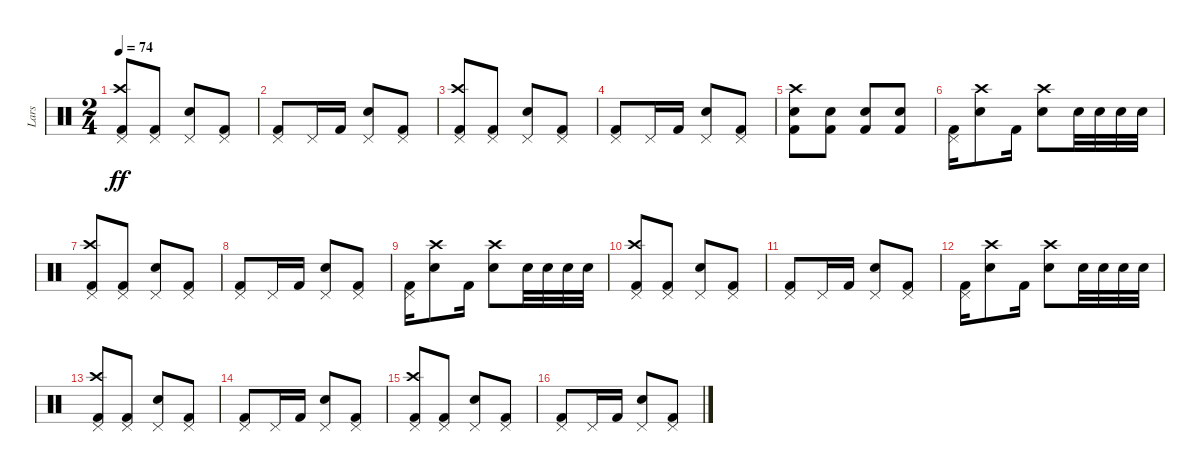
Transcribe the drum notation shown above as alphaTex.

\track ("Lars" "Lars") {instrument percussion}
\staff {score}
\articulation defaults
\ts (2 4)
\tempo 74
\clef neutral
\ks c
("Pedal Hi-Hat (hit)" "Crash high (hit)" "Kick (hit) 2").8{dy ff} ("Pedal Hi-Hat (hit)" "Kick (hit) 2").8 ("Pedal Hi-Hat (hit)" "Snare (hit) 2").8 ("Pedal Hi-Hat (hit)" "Kick (hit) 2").8 |
("Pedal Hi-Hat (hit)" "Kick (hit) 2").8 "Pedal Hi-Hat (hit)".16 "Kick (hit) 2".16 ("Pedal Hi-Hat (hit)" "Snare (hit) 2").8 ("Pedal Hi-Hat (hit)" "Kick (hit) 2").8 |
("Pedal Hi-Hat (hit)" "Crash high (hit)" "Kick (hit) 2").8 ("Pedal Hi-Hat (hit)" "Kick (hit) 2").8 ("Pedal Hi-Hat (hit)" "Snare (hit) 2").8 ("Pedal Hi-Hat (hit)" "Kick (hit) 2").8 |
("Pedal Hi-Hat (hit)" "Kick (hit) 2").8 "Pedal Hi-Hat (hit)".16 "Kick (hit) 2".16 ("Pedal Hi-Hat (hit)" "Snare (hit) 2").8 ("Pedal Hi-Hat (hit)" "Kick (hit) 2").8 |
("Crash high (hit)" "Snare (hit) 2" "Kick (hit) 2").8 ("Snare (hit) 2" "Kick (hit) 2").8 ("Snare (hit) 2" "Kick (hit) 2").8 ("Snare (hit) 2" "Kick (hit) 2").8 |
("Pedal Hi-Hat (hit)" "Kick (hit) 2").16 ("Crash high (hit)" "Snare (hit) 2").8 "Kick (hit) 2".16 ("Crash high (hit)" "Snare (hit) 2").8 "Snare (hit) 2".32 "Snare (hit) 2".32 "Snare (hit) 2".32 "Snare (hit) 2".32 |
("Pedal Hi-Hat (hit)" "Crash high (hit)" "Kick (hit) 2").8 ("Pedal Hi-Hat (hit)" "Kick (hit) 2").8 ("Pedal Hi-Hat (hit)" "Snare (hit) 2").8 ("Pedal Hi-Hat (hit)" "Kick (hit) 2").8 |
("Pedal Hi-Hat (hit)" "Kick (hit) 2").8 "Pedal Hi-Hat (hit)".16 "Kick (hit) 2".16 ("Pedal Hi-Hat (hit)" "Snare (hit) 2").8 ("Pedal Hi-Hat (hit)" "Kick (hit) 2").8 |
("Pedal Hi-Hat (hit)" "Kick (hit) 2").16 ("Crash high (hit)" "Snare (hit) 2").8 "Kick (hit) 2".16 ("Crash high (hit)" "Snare (hit) 2").8 "Snare (hit) 2".32 "Snare (hit) 2".32 "Snare (hit) 2".32 "Snare (hit) 2".32 |
("Pedal Hi-Hat (hit)" "Crash high (hit)" "Kick (hit) 2").8 ("Pedal Hi-Hat (hit)" "Kick (hit) 2").8 ("Pedal Hi-Hat (hit)" "Snare (hit) 2").8 ("Pedal Hi-Hat (hit)" "Kick (hit) 2").8 |
("Pedal Hi-Hat (hit)" "Kick (hit) 2").8 "Pedal Hi-Hat (hit)".16 "Kick (hit) 2".16 ("Pedal Hi-Hat (hit)" "Snare (hit) 2").8 ("Pedal Hi-Hat (hit)" "Kick (hit) 2").8 |
("Pedal Hi-Hat (hit)" "Kick (hit) 2").16 ("Crash high (hit)" "Snare (hit) 2").8 "Kick (hit) 2".16 ("Crash high (hit)" "Snare (hit) 2").8 "Snare (hit) 2".32 "Snare (hit) 2".32 "Snare (hit) 2".32 "Snare (hit) 2".32 |
("Pedal Hi-Hat (hit)" "Crash high (hit)" "Kick (hit) 2").8 ("Pedal Hi-Hat (hit)" "Kick (hit) 2").8 ("Pedal Hi-Hat (hit)" "Snare (hit) 2").8 ("Pedal Hi-Hat (hit)" "Kick (hit) 2").8 |
("Pedal Hi-Hat (hit)" "Kick (hit) 2").8 "Pedal Hi-Hat (hit)".16 "Kick (hit) 2".16 ("Pedal Hi-Hat (hit)" "Snare (hit) 2").8 ("Pedal Hi-Hat (hit)" "Kick (hit) 2").8 |
("Pedal Hi-Hat (hit)" "Crash high (hit)" "Kick (hit) 2").8 ("Pedal Hi-Hat (hit)" "Kick (hit) 2").8 ("Pedal Hi-Hat (hit)" "Snare (hit) 2").8 ("Pedal Hi-Hat (hit)" "Kick (hit) 2").8 |
("Pedal Hi-Hat (hit)" "Kick (hit) 2").8 "Pedal Hi-Hat (hit)".16 "Kick (hit) 2".16 ("Pedal Hi-Hat (hit)" "Snare (hit) 2").8 ("Pedal Hi-Hat (hit)" "Kick (hit) 2").8
